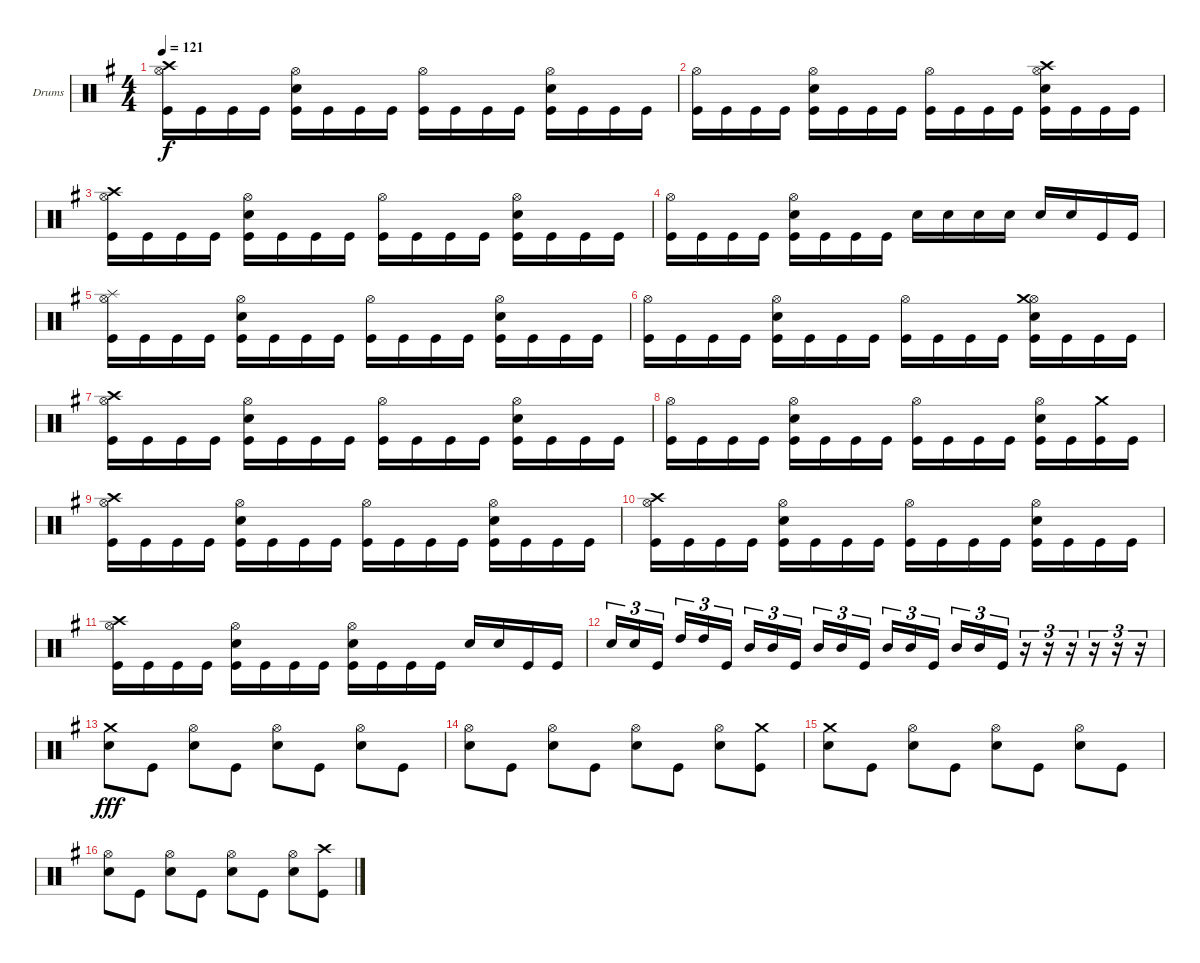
\bracketExtendMode groupsimilarinstruments
\firstSystemTrackNameOrientation horizontal
\otherSystemsTrackNameOrientation horizontal
\track ("Drumkit" "Drums") {instrument percussion}
\staff {score}
\articulation defaults
\ts (4 4)
\tempo 121
\clef neutral
\scale
0.333333
\ks g
("Hi-Hat (open)" "Kick (hit)" "Crash high (hit)").16{dy f} "Kick (hit)".16 "Kick (hit)".16 "Kick (hit)".16 ("Hi-Hat (open)" "Snare (hit) 2" "Kick (hit)").16 "Kick (hit)".16 "Kick (hit)".16 "Kick (hit)".16 ("Hi-Hat (open)" "Kick (hit)").16 "Kick (hit)".16 "Kick (hit)".16 "Kick (hit)".16 ("Hi-Hat (open)" "Snare (hit) 2" "Kick (hit)").16 "Kick (hit)".16 "Kick (hit)".16 "Kick (hit)".16 |
\scale
0.333333 ("Hi-Hat (open)" "Kick (hit)").16 "Kick (hit)".16 "Kick (hit)".16 "Kick (hit)".16 ("Hi-Hat (open)" "Snare (hit) 2" "Kick (hit)").16 "Kick (hit)".16 "Kick (hit)".16 "Kick (hit)".16 ("Hi-Hat (open)" "Kick (hit)").16 "Kick (hit)".16 "Kick (hit)".16 "Kick (hit)".16 ("Hi-Hat (open)" "Snare (hit) 2" "Kick (hit)" "Crash high (hit)").16 "Kick (hit)".16 "Kick (hit)".16 "Kick (hit)".16 |
\scale
0.333333 ("Hi-Hat (open)" "Kick (hit)" "Crash high (hit)").16 "Kick (hit)".16 "Kick (hit)".16 "Kick (hit)".16 ("Hi-Hat (open)" "Snare (hit) 2" "Kick (hit)").16 "Kick (hit)".16 "Kick (hit)".16 "Kick (hit)".16 ("Hi-Hat (open)" "Kick (hit)").16 "Kick (hit)".16 "Kick (hit)".16 "Kick (hit)".16 ("Hi-Hat (open)" "Snare (hit) 2" "Kick (hit)").16 "Kick (hit)".16 "Kick (hit)".16 "Kick (hit)".16 |
\scale
0.333333 ("Hi-Hat (open)" "Kick (hit)").16 "Kick (hit)".16 "Kick (hit)".16 "Kick (hit)".16 ("Hi-Hat (open)" "Snare (hit) 2" "Kick (hit)").16 "Kick (hit)".16 "Kick (hit)".16 "Kick (hit)".16 "Snare (hit) 2".16 "Snare (hit) 2".16 "Snare (hit) 2".16 "Snare (hit) 2".16 "Snare (hit) 2".16 "Snare (hit) 2".16 "Kick (hit)".16 "Kick (hit)".16 |
\scale
0.333333 ("Hi-Hat (open)" "Kick (hit)" "Splash (hit)").16 "Kick (hit)".16 "Kick (hit)".16 "Kick (hit)".16 ("Hi-Hat (open)" "Snare (hit) 2" "Kick (hit)").16 "Kick (hit)".16 "Kick (hit)".16 "Kick (hit)".16 ("Hi-Hat (open)" "Kick (hit)").16 "Kick (hit)".16 "Kick (hit)".16 "Kick (hit)".16 ("Hi-Hat (open)" "Snare (hit) 2" "Kick (hit)").16 "Kick (hit)".16 "Kick (hit)".16 "Kick (hit)".16 |
\scale
0.333333 ("Hi-Hat (open)" "Kick (hit)").16 "Kick (hit)".16 "Kick (hit)".16 "Kick (hit)".16 ("Hi-Hat (open)" "Snare (hit) 2" "Kick (hit)").16 "Kick (hit)".16 "Kick (hit)".16 "Kick (hit)".16 ("Hi-Hat (open)" "Kick (hit)").16 "Kick (hit)".16 "Kick (hit)".16 "Kick (hit)".16 ("Hi-Hat (open)" "Snare (hit) 2" "Kick (hit)" "Crash medium (hit)").16 "Kick (hit)".16 "Kick (hit)".16 "Kick (hit)".16 |
\scale
0.333333 ("Hi-Hat (open)" "Kick (hit)" "Crash high (hit)").16 "Kick (hit)".16 "Kick (hit)".16 "Kick (hit)".16 ("Hi-Hat (open)" "Snare (hit) 2" "Kick (hit)").16 "Kick (hit)".16 "Kick (hit)".16 "Kick (hit)".16 ("Hi-Hat (open)" "Kick (hit)").16 "Kick (hit)".16 "Kick (hit)".16 "Kick (hit)".16 ("Hi-Hat (open)" "Snare (hit) 2" "Kick (hit)").16 "Kick (hit)".16 "Kick (hit)".16 "Kick (hit)".16 |
\scale
0.333333 ("Hi-Hat (open)" "Kick (hit)").16 "Kick (hit)".16 "Kick (hit)".16 "Kick (hit)".16 ("Hi-Hat (open)" "Snare (hit) 2" "Kick (hit)").16 "Kick (hit)".16 "Kick (hit)".16 "Kick (hit)".16 ("Hi-Hat (open)" "Kick (hit)").16 "Kick (hit)".16 "Kick (hit)".16 "Kick (hit)".16 ("Hi-Hat (open)" "Snare (hit) 2" "Kick (hit)").16 "Kick (hit)".16 ("Kick (hit)" "Crash medium (hit)").16 "Kick (hit)".16 |
\scale
0.333333 ("Hi-Hat (open)" "Kick (hit)" "Crash high (hit)").16 "Kick (hit)".16 "Kick (hit)".16 "Kick (hit)".16 ("Hi-Hat (open)" "Snare (hit) 2" "Kick (hit)").16 "Kick (hit)".16 "Kick (hit)".16 "Kick (hit)".16 ("Hi-Hat (open)" "Kick (hit)").16 "Kick (hit)".16 "Kick (hit)".16 "Kick (hit)".16 ("Hi-Hat (open)" "Snare (hit) 2" "Kick (hit)").16 "Kick (hit)".16 "Kick (hit)".16 "Kick (hit)".16 |
\scale
0.333333 ("Hi-Hat (open)" "Kick (hit)" "Crash high (hit)").16 "Kick (hit)".16 "Kick (hit)".16 "Kick (hit)".16 ("Hi-Hat (open)" "Snare (hit) 2" "Kick (hit)").16 "Kick (hit)".16 "Kick (hit)".16 "Kick (hit)".16 ("Hi-Hat (open)" "Kick (hit)").16 "Kick (hit)".16 "Kick (hit)".16 "Kick (hit)".16 ("Hi-Hat (open)" "Snare (hit) 2" "Kick (hit)").16 "Kick (hit)".16 "Kick (hit)".16 "Kick (hit)".16 |
\scale
0.333333 ("Hi-Hat (open)" "Kick (hit)" "Crash high (hit)").16 "Kick (hit)".16 "Kick (hit)".16 "Kick (hit)".16 ("Hi-Hat (open)" "Snare (hit) 2" "Kick (hit)").16 "Kick (hit)".16 "Kick (hit)".16 "Kick (hit)".16 ("Hi-Hat (open)" "Snare (hit) 2" "Kick (hit)").16 "Kick (hit)".16 "Kick (hit)".16 "Kick (hit)".16 "Snare (hit) 2".16 "Snare (hit) 2".16 "Kick (hit)".16 "Kick (hit)".16 |
\scale
0.333333 "Snare (hit) 2".16{tu (3 2)} "Snare (hit) 2".16{tu (3 2)} "Kick (hit)".16{tu (3 2)} "High Tom (hit)".16{tu (3 2)} "High Tom (hit)".16{tu (3 2)} "Kick (hit)".16{tu (3 2)} "Mid Tom (hit)".16{tu (3 2)} "Mid Tom (hit)".16{tu (3 2)} "Kick (hit)".16{tu (3 2)} "Mid Tom (hit)".16{tu (3 2)} "Mid Tom (hit)".16{tu (3 2)} "Kick (hit)".16{tu (3 2)} "Mid Tom (hit)".16{tu (3 2)} "Mid Tom (hit)".16{tu (3 2)} "Kick (hit)".16{tu (3 2)} "Mid Tom (hit)".16{tu (3 2)} "Mid Tom (hit)".16{tu (3 2)} "Kick (hit)".16{tu (3 2)} r.16{tu (3 2)} r.16{tu (3 2)} r.16{tu (3 2)} r.16{tu (3 2)} r.16{tu (3 2)} r.16{tu (3 2)} |
\scale
0.333333 ("Snare (hit) 2" "Crash medium (hit)").8{dy fff} "Kick (hit)".8 ("Snare (hit) 2" "Hi-Hat (open)").8 "Kick (hit)".8 ("Snare (hit) 2" "Hi-Hat (open)").8 "Kick (hit)".8 ("Snare (hit) 2" "Hi-Hat (open)").8 "Kick (hit)".8 |
\scale
0.333333 ("Snare (hit) 2" "Hi-Hat (open)").8 "Kick (hit)".8 ("Snare (hit) 2" "Hi-Hat (open)").8 "Kick (hit)".8 ("Snare (hit) 2" "Hi-Hat (open)").8 "Kick (hit)".8 ("Snare (hit) 2" "Hi-Hat (open)").8 ("Kick (hit)" "Crash medium (hit)").8 |
\scale
0.333333 ("Snare (hit) 2" "Crash medium (hit)").8 "Kick (hit)".8 ("Snare (hit) 2" "Hi-Hat (open)").8 "Kick (hit)".8 ("Snare (hit) 2" "Hi-Hat (open)").8 "Kick (hit)".8 ("Snare (hit) 2" "Hi-Hat (open)").8 "Kick (hit)".8 |
\scale
0.333333 ("Snare (hit) 2" "Hi-Hat (open)").8 "Kick (hit)".8 ("Snare (hit) 2" "Hi-Hat (open)").8 "Kick (hit)".8 ("Snare (hit) 2" "Hi-Hat (open)").8 "Kick (hit)".8 ("Snare (hit) 2" "Hi-Hat (open)").8 ("Kick (hit)" "Crash high (hit)").8
